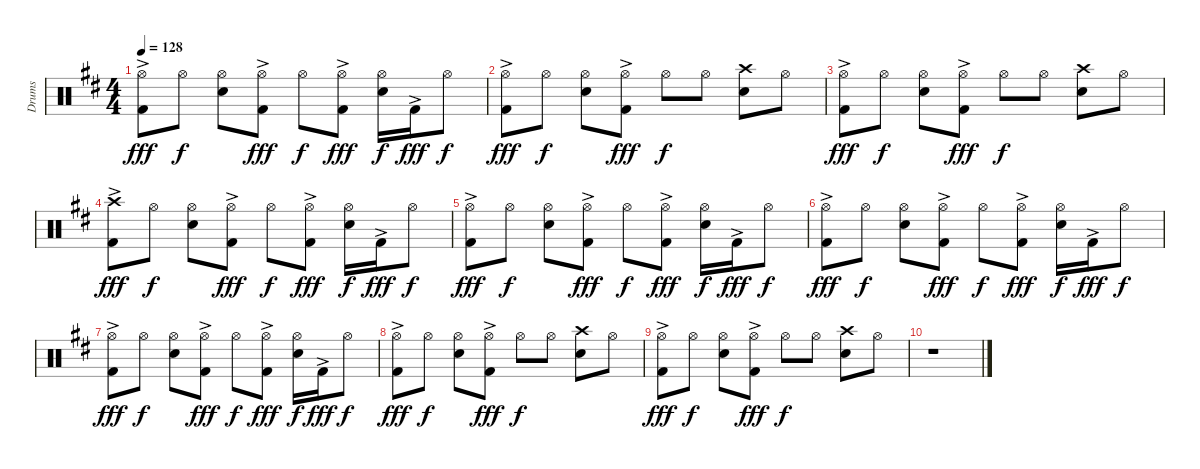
\track ("Drums" "Drums") {instrument percussion}
\staff {score}
\articulation defaults
\ts (4 4)
\tempo 128
\clef neutral
\ks d
("Hi-Hat (open)" "Kick (hit) 2"{ac}).8{dy fff} "Hi-Hat (open)".8{dy f} ("Hi-Hat (open)" "Snare (hit) 2").8 ("Hi-Hat (open)" "Kick (hit) 2"{ac}).8{dy fff} "Hi-Hat (open)".8{dy f} ("Hi-Hat (open)" "Kick (hit) 2"{ac}).8{dy fff} ("Hi-Hat (open)" "Snare (hit) 2").16{dy f} "Kick (hit) 2"{ac}.16{dy fff} "Hi-Hat (open)".8{dy f} |
("Hi-Hat (open)" "Kick (hit) 2"{ac}).8{dy fff} "Hi-Hat (open)".8{dy f} ("Hi-Hat (open)" "Snare (hit) 2").8 ("Hi-Hat (open)" "Kick (hit) 2"{ac}).8{dy fff} "Hi-Hat (open)".8{dy f} "Hi-Hat (open)".8 ("Crash high (hit)" "Snare (hit) 2").8 "Hi-Hat (open)".8 |
("Hi-Hat (open)" "Kick (hit) 2"{ac}).8{dy fff} "Hi-Hat (open)".8{dy f} ("Hi-Hat (open)" "Snare (hit) 2").8 ("Hi-Hat (open)" "Kick (hit) 2"{ac}).8{dy fff} "Hi-Hat (open)".8{dy f} "Hi-Hat (open)".8 ("Crash high (hit)" "Snare (hit) 2").8 "Hi-Hat (open)".8 |
("Crash high (hit)" "Kick (hit) 2"{ac}).8{dy fff} "Hi-Hat (open)".8{dy f} ("Hi-Hat (open)" "Snare (hit) 2").8 ("Hi-Hat (open)" "Kick (hit) 2"{ac}).8{dy fff} "Hi-Hat (open)".8{dy f} ("Hi-Hat (open)" "Kick (hit) 2"{ac}).8{dy fff} ("Hi-Hat (open)" "Snare (hit) 2").16{dy f} "Kick (hit) 2"{ac}.16{dy fff} "Hi-Hat (open)".8{dy f} |
("Hi-Hat (open)" "Kick (hit) 2"{ac}).8{dy fff} "Hi-Hat (open)".8{dy f} ("Hi-Hat (open)" "Snare (hit) 2").8 ("Hi-Hat (open)" "Kick (hit) 2"{ac}).8{dy fff} "Hi-Hat (open)".8{dy f} ("Hi-Hat (open)" "Kick (hit) 2"{ac}).8{dy fff} ("Hi-Hat (open)" "Snare (hit) 2").16{dy f} "Kick (hit) 2"{ac}.16{dy fff} "Hi-Hat (open)".8{dy f} |
("Hi-Hat (open)" "Kick (hit) 2"{ac}).8{dy fff} "Hi-Hat (open)".8{dy f} ("Hi-Hat (open)" "Snare (hit) 2").8 ("Hi-Hat (open)" "Kick (hit) 2"{ac}).8{dy fff} "Hi-Hat (open)".8{dy f} ("Hi-Hat (open)" "Kick (hit) 2"{ac}).8{dy fff} ("Hi-Hat (open)" "Snare (hit) 2").16{dy f} "Kick (hit) 2"{ac}.16{dy fff} "Hi-Hat (open)".8{dy f} |
("Hi-Hat (open)" "Kick (hit) 2"{ac}).8{dy fff} "Hi-Hat (open)".8{dy f} ("Hi-Hat (open)" "Snare (hit) 2").8 ("Hi-Hat (open)" "Kick (hit) 2"{ac}).8{dy fff} "Hi-Hat (open)".8{dy f} ("Hi-Hat (open)" "Kick (hit) 2"{ac}).8{dy fff} ("Hi-Hat (open)" "Snare (hit) 2").16{dy f} "Kick (hit) 2"{ac}.16{dy fff} "Hi-Hat (open)".8{dy f} |
("Hi-Hat (open)" "Kick (hit) 2"{ac}).8{dy fff} "Hi-Hat (open)".8{dy f} ("Hi-Hat (open)" "Snare (hit) 2").8 ("Hi-Hat (open)" "Kick (hit) 2"{ac}).8{dy fff} "Hi-Hat (open)".8{dy f} "Hi-Hat (open)".8 ("Crash high (hit)" "Snare (hit) 2").8 "Hi-Hat (open)".8 |
("Hi-Hat (open)" "Kick (hit) 2"{ac}).8{dy fff} "Hi-Hat (open)".8{dy f} ("Hi-Hat (open)" "Snare (hit) 2").8 ("Hi-Hat (open)" "Kick (hit) 2"{ac}).8{dy fff} "Hi-Hat (open)".8{dy f} "Hi-Hat (open)".8 ("Crash high (hit)" "Snare (hit) 2").8 "Hi-Hat (open)".8 |
r.1
